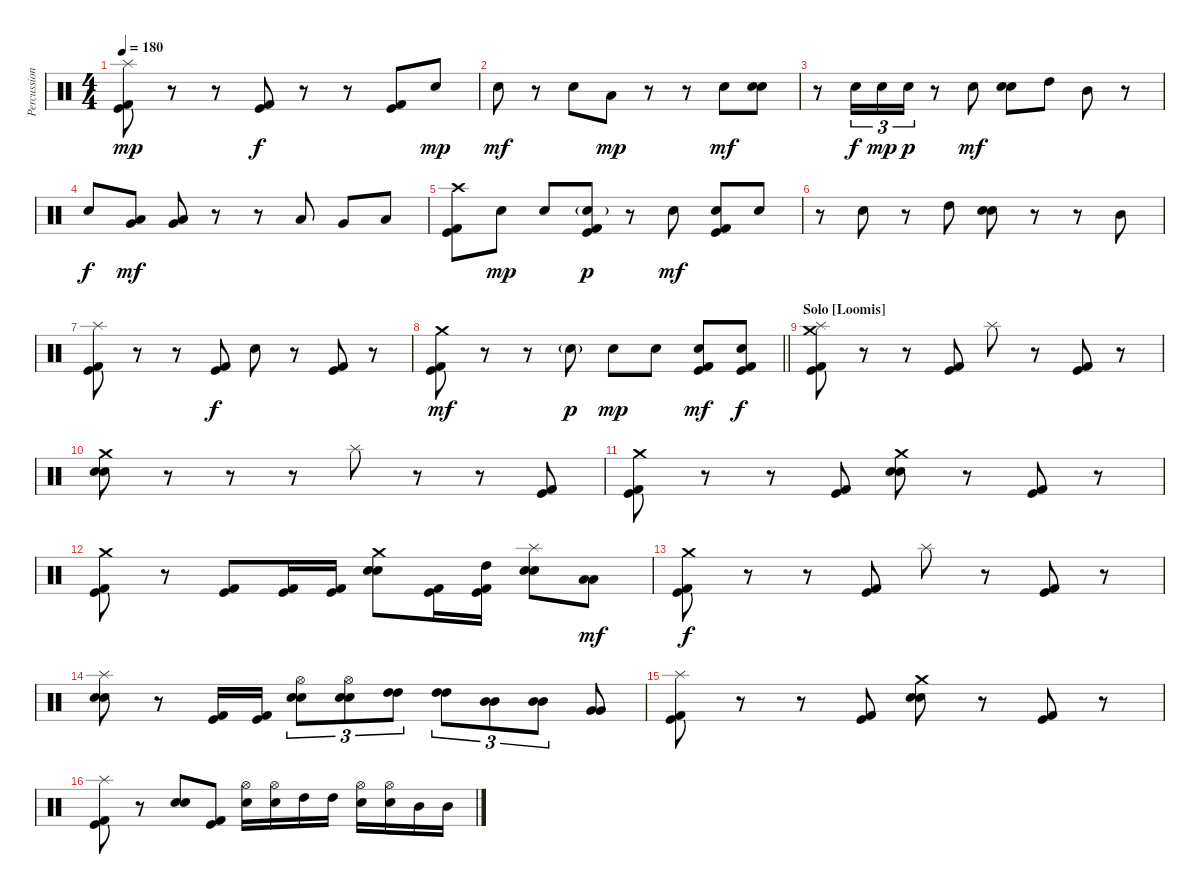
\track ("Percussion" "Percussion") {instrument percussion}
\staff {score}
\articulation defaults
\ts (4 4)
\tempo 180
\clef neutral
\ks c
("Splash (hit)" "Kick (hit)" "Kick (hit) 2").8{dy mp} r.8 r.8 ("Kick (hit)" "Kick (hit) 2").8{dy f} r.8 r.8 ("Kick (hit)" "Kick (hit) 2").8 "Electric Snare (hit)".8{dy mp} |
"Electric Snare (hit)".8{dy mf} r.8 "Electric Snare (hit)".8 "Low Tom (hit)".8{dy mp} r.8 r.8 "Electric Snare (hit)".8{dy mf} ("Electric Snare (hit)" "Electric Snare (hit)").8 |
r.8 "Electric Snare (hit)".16{tu (3 2) dy f} "Electric Snare (hit)".16{tu (3 2) dy mp} "Electric Snare (hit)".16{tu (3 2) dy p} r.8 "Electric Snare (hit)".8{dy mf} ("Electric Snare (hit)" "Electric Snare (hit)").8 "High Tom (hit)".8 "Mid Tom (hit)".8 r.8 |
"Electric Snare (hit)".8{dy f} ("Low Tom (hit)" "Very Low Tom (hit)").8{dy mf} ("Very Low Tom (hit)" "Low Floor Tom (hit)").8 r.8 r.8 "Low Tom (hit)".8 "Very Low Tom (hit)".8 "Low Floor Tom (hit)".8 |
("Crash high (hit)" "Kick (hit)" "Kick (hit) 2").8 "Electric Snare (hit)".8{dy mp} "Electric Snare (hit)".8 ("Electric Snare (hit)"{g} "Kick (hit)" "Kick (hit) 2").8{dy p} r.8 "Electric Snare (hit)".8{dy mf} ("Electric Snare (hit)" "Kick (hit)" "Kick (hit) 2").8 "Electric Snare (hit)".8 |
r.8 "Electric Snare (hit)".8 r.8 "High Tom (hit)".8 ("Electric Snare (hit)" "Electric Snare (hit)").8 r.8 r.8 "Mid Tom (hit)".8 |
("Splash (hit)" "Kick (hit)" "Kick (hit) 2").8 r.8 r.8 ("Kick (hit)" "Kick (hit) 2").8{dy f} "Electric Snare (hit)".8 r.8 ("Kick (hit)" "Kick (hit) 2").8 r.8 |
\barLineRight lightlight
("Crash medium (hit)" "Kick (hit)" "Kick (hit) 2").8{dy mf} r.8 r.8 "Electric Snare (hit)"{g}.8{dy p} "Electric Snare (hit)".8{dy mp} "Electric Snare (hit)".8 ("Electric Snare (hit)" "Kick (hit)" "Kick (hit) 2").8{dy mf} ("Electric Snare (hit)" "Kick (hit)" "Kick (hit) 2").8{dy f} |
\section ("" "Solo [Loomis]")
("Splash (hit)" "Crash medium (hit)" "Kick (hit) 2" "Kick (hit)").8 r.8 r.8 ("Kick (hit) 2" "Kick (hit)").8 "Splash (hit)".8 r.8 ("Kick (hit) 2" "Kick (hit)").8 r.8 |
("Crash medium (hit)" "Electric Snare (hit)" "Electric Snare (hit)").8 r.8 r.8 r.8 "Splash (hit)".8 r.8 r.8 ("Kick (hit) 2" "Kick (hit)").8 |
("Crash medium (hit)" "Kick (hit) 2" "Kick (hit)").8 r.8 r.8 ("Kick (hit) 2" "Kick (hit)").8 ("Crash medium (hit)" "Electric Snare (hit)" "Electric Snare (hit)").8 r.8 ("Kick (hit) 2" "Kick (hit)").8 r.8 |
("Crash medium (hit)" "Kick (hit) 2" "Kick (hit)").8 r.8 ("Kick (hit) 2" "Kick (hit)").8 ("Kick (hit) 2" "Kick (hit)").16 ("Kick (hit) 2" "Kick (hit)").16 ("Crash medium (hit)" "Electric Snare (hit)" "Electric Snare (hit)").8 ("Kick (hit) 2" "Kick (hit)").16 ("High Tom (hit)" "Kick (hit) 2" "Kick (hit)").16 ("Splash (hit)" "Electric Snare (hit)" "Electric Snare (hit)").8 ("Low Tom (hit)" "Low Tom (hit)").8{dy mf} |
("Crash medium (hit)" "Kick (hit) 2" "Kick (hit)").8{dy f} r.8 r.8 ("Kick (hit) 2" "Kick (hit)").8 "Splash (hit)".8 r.8 ("Kick (hit) 2" "Kick (hit)").8 r.8 |
("Splash (hit)" "Electric Snare (hit)" "Electric Snare (hit)").8 r.8 ("Kick (hit) 2" "Kick (hit)").16 ("Kick (hit) 2" "Kick (hit)").16 ("Hi-Hat (open)" "Electric Snare (hit)" "Electric Snare (hit)").8{tu (3 2)} ("Hi-Hat (open)" "Electric Snare (hit)" "Electric Snare (hit)").8{tu (3 2)} ("High Tom (hit)" "High Tom (hit)").8{tu (3 2)} ("High Tom (hit)" "High Tom (hit)").8{tu (3 2)} ("Mid Tom (hit)" "Mid Tom (hit)").8{tu (3 2)} ("Mid Tom (hit)" "Mid Tom (hit)").8{tu (3 2)} ("Very Low Tom (hit)" "Very Low Tom (hit)").8 |
("Splash (hit)" "Kick (hit) 2" "Kick (hit)").8 r.8 r.8 ("Kick (hit) 2" "Kick (hit)").8 ("Crash medium (hit)" "Electric Snare (hit)" "Electric Snare (hit)").8 r.8 ("Kick (hit) 2" "Kick (hit)").8 r.8 |
("Splash (hit)" "Kick (hit) 2" "Kick (hit)").8 r.8 ("Electric Snare (hit)" "Electric Snare (hit)").8 ("Kick (hit) 2" "Kick (hit)").8 ("Hi-Hat (open)" "Electric Snare (hit)").16 ("Hi-Hat (open)" "Electric Snare (hit)").16 "High Tom (hit)".16 "High Tom (hit)".16 ("Hi-Hat (open)" "Electric Snare (hit)").16 ("Hi-Hat (open)" "Electric Snare (hit)").16 "Mid Tom (hit)".16 "Mid Tom (hit)".16
